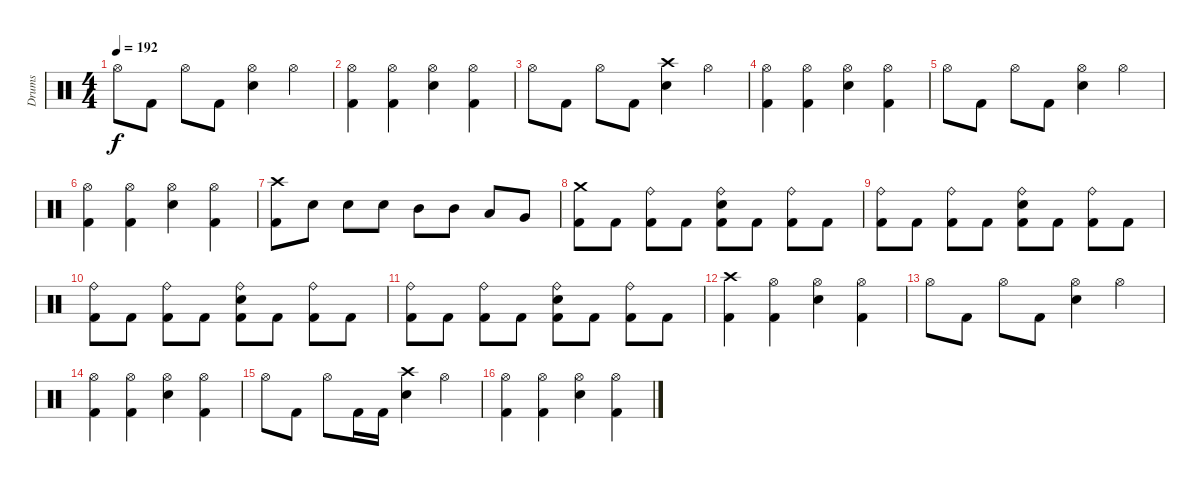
\track ("Drums" "Drums") {instrument percussion}
\staff {score}
\articulation defaults
\ts (4 4)
\tempo 192
\clef neutral
\ks c "Hi-Hat (open)".8{dy f} "Kick (hit) 2".8 "Hi-Hat (open)".8 "Kick (hit) 2".8
("Hi-Hat (open)" "Electric Snare (hit)").4 "Hi-Hat (open)".4 |
("Hi-Hat (open)" "Kick (hit) 2").4 ("Hi-Hat (open)" "Kick (hit) 2").4 ("Hi-Hat (open)" "Electric Snare (hit)").4 ("Hi-Hat (open)" "Kick (hit) 2").4 |
"Hi-Hat (open)".8 "Kick (hit) 2".8 "Hi-Hat (open)".8 "Kick (hit) 2".8 ("Crash high (hit)" "Electric Snare (hit)").4 "Hi-Hat (open)".4 |
("Hi-Hat (open)" "Kick (hit) 2").4 ("Hi-Hat (open)" "Kick (hit) 2").4 ("Hi-Hat (open)" "Electric Snare (hit)").4 ("Hi-Hat (open)" "Kick (hit) 2").4 |
"Hi-Hat (open)".8 "Kick (hit) 2".8 "Hi-Hat (open)".8 "Kick (hit) 2".8 ("Hi-Hat (open)" "Electric Snare (hit)").4 "Hi-Hat (open)".4 |
("Hi-Hat (open)" "Kick (hit) 2").4 ("Hi-Hat (open)" "Kick (hit) 2").4 ("Hi-Hat (open)" "Electric Snare (hit)").4 ("Hi-Hat (open)" "Kick (hit) 2").4 |
("Crash high (hit)" "Kick (hit) 2").8 "Electric Snare (hit)".8 "Electric Snare (hit)".8 "Electric Snare (hit)".8 "Mid Tom (hit)".8 "Mid Tom (hit)".8 "Low Tom (hit)".8 "Very Low Tom (hit)".8 |
("Crash medium (hit)" "Kick (hit) 2").8 "Kick (hit) 2".8 ("Ride (bell)" "Kick (hit) 2").8 "Kick (hit) 2".8 ("Ride (bell)" "Electric Snare (hit)" "Kick (hit) 2").8 "Kick (hit) 2".8 ("Ride (bell)" "Kick (hit) 2").8 "Kick (hit) 2".8 |
("Ride (bell)" "Kick (hit) 2").8 "Kick (hit) 2".8 ("Ride (bell)" "Kick (hit) 2").8 "Kick (hit) 2".8 ("Ride (bell)" "Electric Snare (hit)" "Kick (hit) 2").8 "Kick (hit) 2".8 ("Ride (bell)" "Kick (hit) 2").8 "Kick (hit) 2".8 |
("Ride (bell)" "Kick (hit) 2").8 "Kick (hit) 2".8 ("Ride (bell)" "Kick (hit) 2").8 "Kick (hit) 2".8 ("Ride (bell)" "Electric Snare (hit)" "Kick (hit) 2").8 "Kick (hit) 2".8 ("Ride (bell)" "Kick (hit) 2").8 "Kick (hit) 2".8 |
("Ride (bell)" "Kick (hit) 2").8 "Kick (hit) 2".8 ("Ride (bell)" "Kick (hit) 2").8 "Kick (hit) 2".8 ("Ride (bell)" "Electric Snare (hit)" "Kick (hit) 2").8 "Kick (hit) 2".8 ("Ride (bell)" "Kick (hit) 2").8 "Kick (hit) 2".8 |
("Crash high (hit)" "Kick (hit) 2").4 ("Hi-Hat (open)" "Kick (hit) 2").4 ("Hi-Hat (open)" "Electric Snare (hit)").4 ("Hi-Hat (open)" "Kick (hit) 2").4 |
"Hi-Hat (open)".8 "Kick (hit) 2".8 "Hi-Hat (open)".8 "Kick (hit) 2".8 ("Hi-Hat (open)" "Electric Snare (hit)").4 "Hi-Hat (open)".4 |
("Hi-Hat (open)" "Kick (hit) 2").4 ("Hi-Hat (open)" "Kick (hit) 2").4 ("Hi-Hat (open)" "Electric Snare (hit)").4 ("Hi-Hat (open)" "Kick (hit) 2").4 |
"Hi-Hat (open)".8 "Kick (hit) 2".8 "Hi-Hat (open)".8 "Kick (hit) 2".16 "Kick (hit) 2".16 ("Crash high (hit)" "Electric Snare (hit)").4 "Hi-Hat (open)".4 |
("Hi-Hat (open)" "Kick (hit) 2").4 ("Hi-Hat (open)" "Kick (hit) 2").4 ("Hi-Hat (open)" "Electric Snare (hit)").4 ("Hi-Hat (open)" "Kick (hit) 2").4
